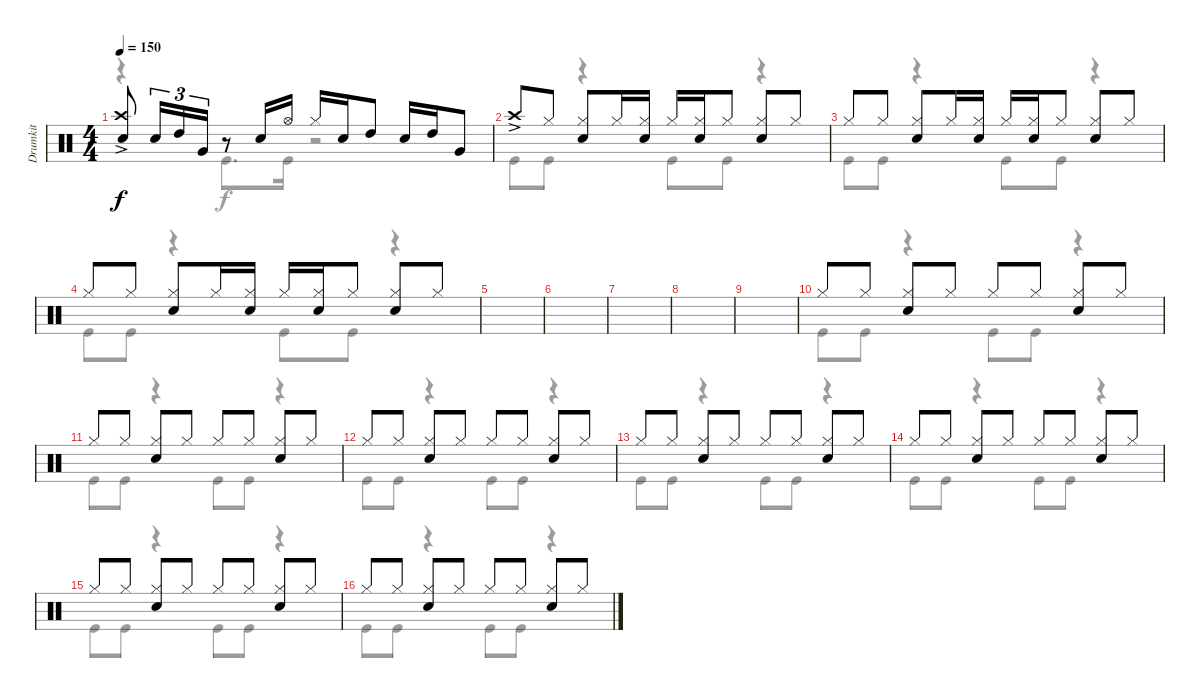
\track ("Drumkit" "Drumkit") {instrument percussion}
\staff {score}
\articulation defaults
\voice
\ts (4 4)
\tempo 150
\clef neutral
\ks c
("Crash high (hit)"{ac} "Snare (hit) 2").8{dy f} "Snare (hit) 2".16{tu (3 2)} "High Tom (hit)".16{tu (3 2)} "Very Low Tom (hit)".16{tu (3 2)} r.8 "Snare (hit) 2".16 "Hi-Hat (open)".16 "Hi-Hat (closed)".16 "Snare (hit) 2".16 "High Tom (hit)".8 "Snare (hit) 2".16 "High Tom (hit)".16 "Very Low Tom (hit)".8 |
"Crash high (hit)"{ac}.8 "Hi-Hat (closed)".8 ("Hi-Hat (closed)" "Snare (hit) 2").8 "Hi-Hat (closed)".16 ("Hi-Hat (closed)" "Snare (hit) 2").16 "Hi-Hat (closed)".16 ("Hi-Hat (closed)" "Snare (hit) 2").16 "Hi-Hat (closed)".8 ("Hi-Hat (closed)" "Snare (hit) 2").8 "Hi-Hat (closed)".8 |
"Hi-Hat (closed)".8 "Hi-Hat (closed)".8 ("Hi-Hat (closed)" "Snare (hit) 2").8 "Hi-Hat (closed)".16 ("Hi-Hat (closed)" "Snare (hit) 2").16 "Hi-Hat (closed)".16 ("Hi-Hat (closed)" "Snare (hit) 2").16 "Hi-Hat (closed)".8 ("Hi-Hat (closed)" "Snare (hit) 2").8 "Hi-Hat (closed)".8 |
"Hi-Hat (closed)".8 "Hi-Hat (closed)".8 ("Hi-Hat (closed)" "Snare (hit) 2").8 "Hi-Hat (closed)".16 ("Hi-Hat (closed)" "Snare (hit) 2").16 "Hi-Hat (closed)".16 ("Hi-Hat (closed)" "Snare (hit) 2").16 "Hi-Hat (closed)".8 ("Hi-Hat (closed)" "Snare (hit) 2").8 "Hi-Hat (closed)".8 |
|
|
|
|
|
"Hi-Hat (closed)".8 "Hi-Hat (closed)".8 ("Hi-Hat (closed)" "Snare (hit) 2").8 "Hi-Hat (closed)".8 "Hi-Hat (closed)".8 "Hi-Hat (closed)".8 ("Hi-Hat (closed)" "Snare (hit) 2").8 "Hi-Hat (closed)".8 |
"Hi-Hat (closed)".8 "Hi-Hat (closed)".8 ("Hi-Hat (closed)" "Snare (hit) 2").8 "Hi-Hat (closed)".8 "Hi-Hat (closed)".8 "Hi-Hat (closed)".8 ("Hi-Hat (closed)" "Snare (hit) 2").8 "Hi-Hat (closed)".8 |
"Hi-Hat (closed)".8 "Hi-Hat (closed)".8 ("Hi-Hat (closed)" "Snare (hit) 2").8 "Hi-Hat (closed)".8 "Hi-Hat (closed)".8 "Hi-Hat (closed)".8 ("Hi-Hat (closed)" "Snare (hit) 2").8 "Hi-Hat (closed)".8 |
"Hi-Hat (closed)".8 "Hi-Hat (closed)".8 ("Hi-Hat (closed)" "Snare (hit) 2").8 "Hi-Hat (closed)".8 "Hi-Hat (closed)".8 "Hi-Hat (closed)".8 ("Hi-Hat (closed)" "Snare (hit) 2").8 "Hi-Hat (closed)".8 |
"Hi-Hat (closed)".8 "Hi-Hat (closed)".8 ("Hi-Hat (closed)" "Snare (hit) 2").8 "Hi-Hat (closed)".8 "Hi-Hat (closed)".8 "Hi-Hat (closed)".8 ("Hi-Hat (closed)" "Snare (hit) 2").8 "Hi-Hat (closed)".8 |
"Hi-Hat (closed)".8 "Hi-Hat (closed)".8 ("Hi-Hat (closed)" "Snare (hit) 2").8 "Hi-Hat (closed)".8 "Hi-Hat (closed)".8 "Hi-Hat (closed)".8 ("Hi-Hat (closed)" "Snare (hit) 2").8 "Hi-Hat (closed)".8 |
"Hi-Hat (closed)".8 "Hi-Hat (closed)".8 ("Hi-Hat (closed)" "Snare (hit) 2").8 "Hi-Hat (closed)".8 "Hi-Hat (closed)".8 "Hi-Hat (closed)".8 ("Hi-Hat (closed)" "Snare (hit) 2").8 "Hi-Hat (closed)".8
\voice
\clef neutral
\ottava regular
\simile none
\ks c
r.4{dy f} "Kick (hit)".8{d} "Kick (hit)".16 r.2 |
"Kick (hit)".8 "Kick (hit)".8 r.4 "Kick (hit)".8 "Kick (hit)".8 r.4 |
"Kick (hit)".8 "Kick (hit)".8 r.4 "Kick (hit)".8 "Kick (hit)".8 r.4 |
"Kick (hit)".8 "Kick (hit)".8 r.4 "Kick (hit)".8 "Kick (hit)".8 r.4 |
|
|
|
|
|
"Kick (hit)".8 "Kick (hit)".8 r.4 "Kick (hit)".8 "Kick (hit)".8 r.4 |
"Kick (hit)".8 "Kick (hit)".8 r.4 "Kick (hit)".8 "Kick (hit)".8 r.4 |
"Kick (hit)".8 "Kick (hit)".8 r.4 "Kick (hit)".8 "Kick (hit)".8 r.4 |
"Kick (hit)".8 "Kick (hit)".8 r.4 "Kick (hit)".8 "Kick (hit)".8 r.4 |
"Kick (hit)".8 "Kick (hit)".8 r.4 "Kick (hit)".8 "Kick (hit)".8 r.4 |
"Kick (hit)".8 "Kick (hit)".8 r.4 "Kick (hit)".8 "Kick (hit)".8 r.4 |
"Kick (hit)".8 "Kick (hit)".8 r.4 "Kick (hit)".8 "Kick (hit)".8 r.4
